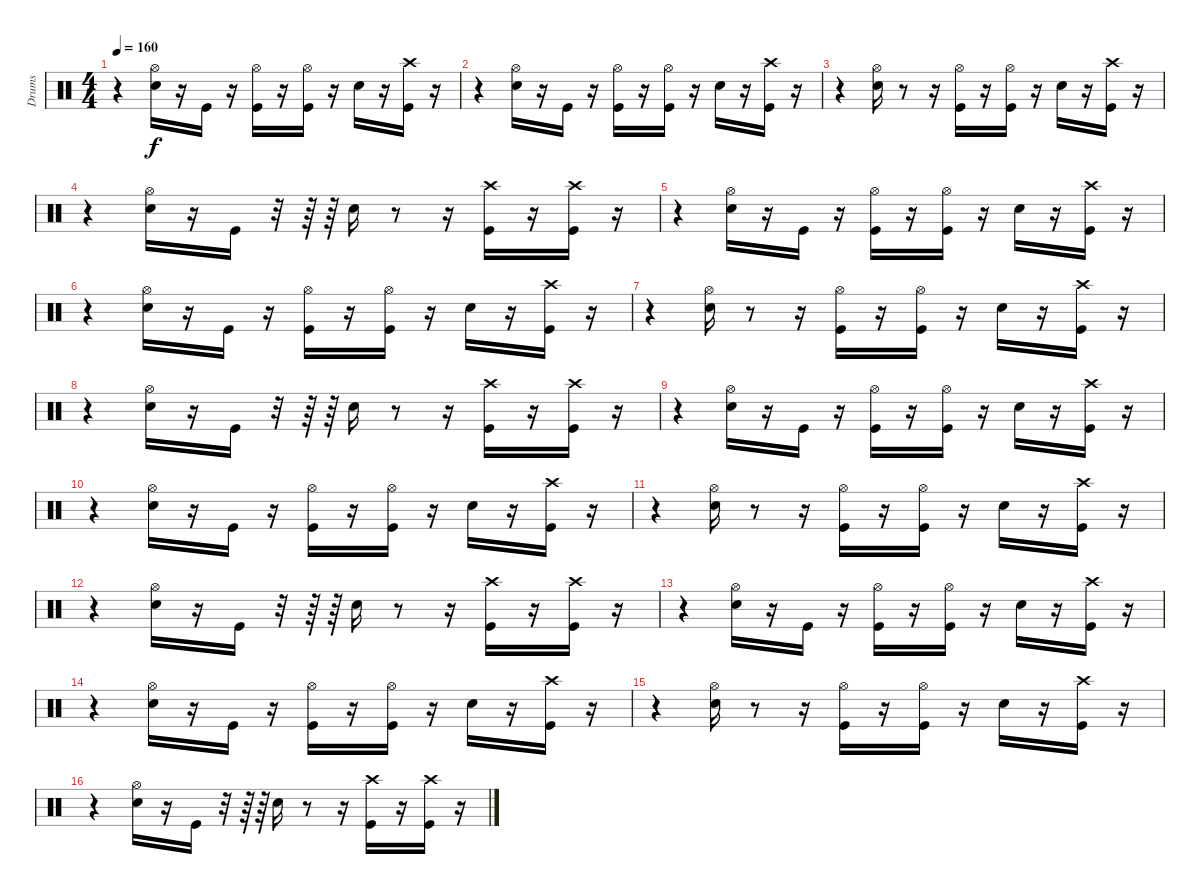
\track ("Drums" "Drums") {instrument percussion}
\staff {score}
\articulation defaults
\ts (4 4)
\tempo 160
\clef neutral
\ks c
r.4{dy f} ("Hi-Hat (open)" "Snare (hit) 2").16 r.16 "Kick (hit)".16 r.16 ("Hi-Hat (open)" "Kick (hit)").16 r.16 ("Kick (hit)" "Hi-Hat (open)").16 r.16 "Snare (hit) 2".16 r.16 ("Kick (hit)" "Crash high (hit)").16 r.16 |
r.4 ("Snare (hit) 2" "Hi-Hat (open)").16 r.16 "Kick (hit)".16 r.16 ("Hi-Hat (open)" "Kick (hit)").16 r.16 ("Kick (hit)" "Hi-Hat (open)").16 r.16 "Snare (hit) 2".16 r.16 ("Kick (hit)" "Crash high (hit)").16 r.16 |
r.4 ("Snare (hit) 2" "Hi-Hat (open)").16 r.8 r.16 ("Hi-Hat (open)" "Kick (hit)").16 r.16 ("Hi-Hat (open)" "Kick (hit)").16 r.16 "Snare (hit) 2".16 r.16 ("Kick (hit)" "Crash high (hit)").16 r.16 |
r.4 ("Hi-Hat (open)" "Snare (hit) 2").16 r.16 "Kick (hit)".16 r.32 r.64 r.64 "Snare (hit) 2".16 r.8 r.16 ("Kick (hit)" "Crash high (hit)").16 r.16 ("Kick (hit)" "Crash high (hit)").16 r.16 |
r.4 ("Snare (hit) 2" "Hi-Hat (open)").16 r.16 "Kick (hit)".16 r.16 ("Hi-Hat (open)" "Kick (hit)").16 r.16 ("Kick (hit)" "Hi-Hat (open)").16 r.16 "Snare (hit) 2".16 r.16 ("Kick (hit)" "Crash high (hit)").16 r.16 |
r.4 ("Snare (hit) 2" "Hi-Hat (open)").16 r.16 "Kick (hit)".16 r.16 ("Hi-Hat (open)" "Kick (hit)").16 r.16 ("Kick (hit)" "Hi-Hat (open)").16 r.16 "Snare (hit) 2".16 r.16 ("Kick (hit)" "Crash high (hit)").16 r.16 |
r.4 ("Snare (hit) 2" "Hi-Hat (open)").16 r.8 r.16 ("Hi-Hat (open)" "Kick (hit)").16 r.16 ("Hi-Hat (open)" "Kick (hit)").16 r.16 "Snare (hit) 2".16 r.16 ("Kick (hit)" "Crash high (hit)").16 r.16 |
r.4 ("Hi-Hat (open)" "Snare (hit) 2").16 r.16 "Kick (hit)".16 r.32 r.64 r.64 "Snare (hit) 2".16 r.8 r.16 ("Kick (hit)" "Crash high (hit)").16 r.16 ("Kick (hit)" "Crash high (hit)").16 r.16 |
r.4 ("Snare (hit) 2" "Hi-Hat (open)").16 r.16 "Kick (hit)".16 r.16 ("Hi-Hat (open)" "Kick (hit)").16 r.16 ("Kick (hit)" "Hi-Hat (open)").16 r.16 "Snare (hit) 2".16 r.16 ("Kick (hit)" "Crash high (hit)").16 r.16 |
r.4 ("Snare (hit) 2" "Hi-Hat (open)").16 r.16 "Kick (hit)".16 r.16 ("Hi-Hat (open)" "Kick (hit)").16 r.16 ("Kick (hit)" "Hi-Hat (open)").16 r.16 "Snare (hit) 2".16 r.16 ("Kick (hit)" "Crash high (hit)").16 r.16 |
r.4 ("Snare (hit) 2" "Hi-Hat (open)").16 r.8 r.16 ("Hi-Hat (open)" "Kick (hit)").16 r.16 ("Hi-Hat (open)" "Kick (hit)").16 r.16 "Snare (hit) 2".16 r.16 ("Kick (hit)" "Crash high (hit)").16 r.16 |
r.4 ("Hi-Hat (open)" "Snare (hit) 2").16 r.16 "Kick (hit)".16 r.32 r.64 r.64 "Snare (hit) 2".16 r.8 r.16 ("Kick (hit)" "Crash high (hit)").16 r.16 ("Kick (hit)" "Crash high (hit)").16 r.16 |
r.4 ("Snare (hit) 2" "Hi-Hat (open)").16 r.16 "Kick (hit)".16 r.16 ("Hi-Hat (open)" "Kick (hit)").16 r.16 ("Kick (hit)" "Hi-Hat (open)").16 r.16 "Snare (hit) 2".16 r.16 ("Kick (hit)" "Crash high (hit)").16 r.16 |
r.4 ("Snare (hit) 2" "Hi-Hat (open)").16 r.16 "Kick (hit)".16 r.16 ("Hi-Hat (open)" "Kick (hit)").16 r.16 ("Kick (hit)" "Hi-Hat (open)").16 r.16 "Snare (hit) 2".16 r.16 ("Kick (hit)" "Crash high (hit)").16 r.16 |
r.4 ("Snare (hit) 2" "Hi-Hat (open)").16 r.8 r.16 ("Hi-Hat (open)" "Kick (hit)").16 r.16 ("Hi-Hat (open)" "Kick (hit)").16 r.16 "Snare (hit) 2".16 r.16 ("Kick (hit)" "Crash high (hit)").16 r.16 |
r.4 ("Hi-Hat (open)" "Snare (hit) 2").16 r.16 "Kick (hit)".16 r.32 r.64 r.64 "Snare (hit) 2".16 r.8 r.16 ("Kick (hit)" "Crash high (hit)").16 r.16 ("Kick (hit)" "Crash high (hit)").16 r.16
